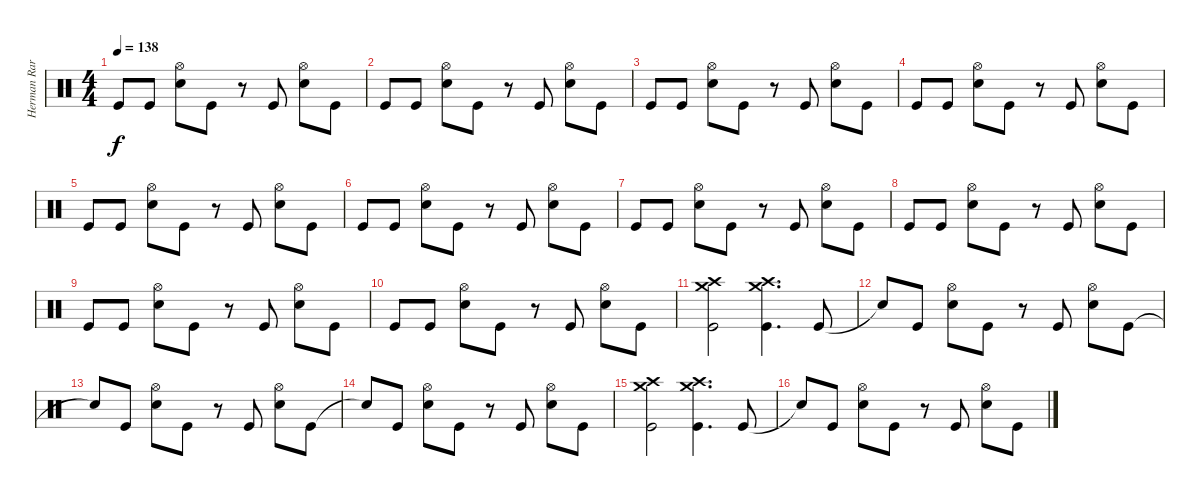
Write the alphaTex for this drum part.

\track ("Herman Rarebell Drums" "Herman Rar") {instrument percussion}
\staff {score}
\articulation defaults
\ts (4 4)
\tempo 138
\clef neutral
\ks c "Kick (hit)".8{dy f} "Kick (hit)".8
("Hi-Hat (open)" "Snare (hit) 2").8 "Kick (hit)".8 r.8 "Kick (hit)".8 ("Hi-Hat (open)" "Snare (hit) 2").8 "Kick (hit)".8 |
"Kick (hit)".8 "Kick (hit)".8 ("Hi-Hat (open)" "Snare (hit) 2").8 "Kick (hit)".8 r.8 "Kick (hit)".8 ("Hi-Hat (open)" "Snare (hit) 2").8 "Kick (hit)".8 |
"Kick (hit)".8 "Kick (hit)".8 ("Hi-Hat (open)" "Snare (hit) 2").8 "Kick (hit)".8 r.8 "Kick (hit)".8 ("Hi-Hat (open)" "Snare (hit) 2").8 "Kick (hit)".8 |
"Kick (hit)".8 "Kick (hit)".8 ("Hi-Hat (open)" "Snare (hit) 2").8 "Kick (hit)".8 r.8 "Kick (hit)".8 ("Hi-Hat (open)" "Snare (hit) 2").8 "Kick (hit)".8 |
"Kick (hit)".8 "Kick (hit)".8 ("Hi-Hat (open)" "Snare (hit) 2").8 "Kick (hit)".8 r.8 "Kick (hit)".8 ("Hi-Hat (open)" "Snare (hit) 2").8 "Kick (hit)".8 |
"Kick (hit)".8 "Kick (hit)".8 ("Hi-Hat (open)" "Snare (hit) 2").8 "Kick (hit)".8 r.8 "Kick (hit)".8 ("Hi-Hat (open)" "Snare (hit) 2").8 "Kick (hit)".8 |
"Kick (hit)".8 "Kick (hit)".8 ("Hi-Hat (open)" "Snare (hit) 2").8 "Kick (hit)".8 r.8 "Kick (hit)".8 ("Hi-Hat (open)" "Snare (hit) 2").8 "Kick (hit)".8 |
"Kick (hit)".8 "Kick (hit)".8 ("Hi-Hat (open)" "Snare (hit) 2").8 "Kick (hit)".8 r.8 "Kick (hit)".8 ("Hi-Hat (open)" "Snare (hit) 2").8 "Kick (hit)".8 |
"Kick (hit)".8 "Kick (hit)".8 ("Hi-Hat (open)" "Snare (hit) 2").8 "Kick (hit)".8 r.8 "Kick (hit)".8 ("Hi-Hat (open)" "Snare (hit) 2").8 "Kick (hit)".8 |
"Kick (hit)".8 "Kick (hit)".8 ("Hi-Hat (open)" "Snare (hit) 2").8 "Kick (hit)".8 r.8 "Kick (hit)".8 ("Hi-Hat (open)" "Snare (hit) 2").8 "Kick (hit)".8 |
("Crash high (hit)" "Crash medium (hit)" "Kick (hit)").2 ("Crash high (hit)" "Crash medium (hit)" "Kick (hit)").4{d} "Kick (hit)".8 |
"Snare (hit)"{t}.8 "Kick (hit)".8 ("Hi-Hat (open)" "Snare (hit) 2").8 "Kick (hit)".8 r.8 "Kick (hit)".8 ("Hi-Hat (open)" "Snare (hit) 2").8 "Kick (hit)".8 |
"Snare (hit)"{t}.8 "Kick (hit)".8 ("Hi-Hat (open)" "Snare (hit) 2").8 "Kick (hit)".8 r.8 "Kick (hit)".8 ("Hi-Hat (open)" "Snare (hit) 2").8 "Kick (hit)".8 |
"Snare (hit)"{t}.8 "Kick (hit)".8 ("Hi-Hat (open)" "Snare (hit) 2").8 "Kick (hit)".8 r.8 "Kick (hit)".8 ("Hi-Hat (open)" "Snare (hit) 2").8 "Kick (hit)".8 |
("Crash high (hit)" "Crash medium (hit)" "Kick (hit)").2 ("Crash high (hit)" "Crash medium (hit)" "Kick (hit)").4{d} "Kick (hit)".8 |
"Snare (hit)"{t}.8 "Kick (hit)".8 ("Hi-Hat (open)" "Snare (hit) 2").8 "Kick (hit)".8 r.8 "Kick (hit)".8 ("Hi-Hat (open)" "Snare (hit) 2").8 "Kick (hit)".8
